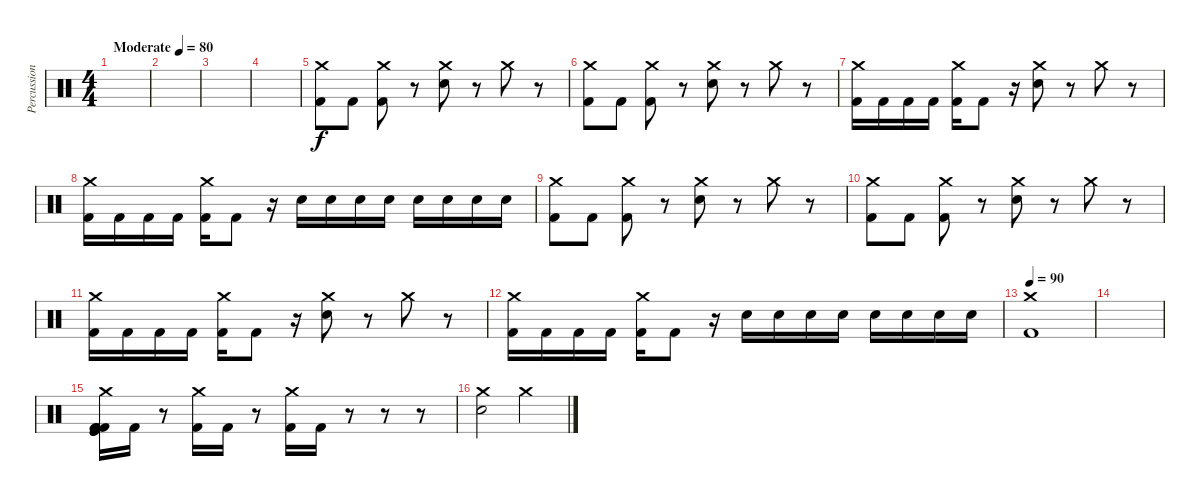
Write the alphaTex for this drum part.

\track ("Percussion" "Percussion") {instrument percussion}
\staff {score}
\articulation defaults
\ts (4 4)
\tempo (80 "Moderate")
\clef neutral
\ks c
|
|
|
|
("Crash medium (hit)" "Kick (hit) 2").8 "Kick (hit) 2".8 ("Crash medium (hit)" "Kick (hit) 2").8 r.8 ("Crash medium (hit)" "Electric Snare (hit)").8 r.8 "Crash medium (hit)".8 r.8 |
("Crash medium (hit)" "Kick (hit) 2").8 "Kick (hit) 2".8 ("Crash medium (hit)" "Kick (hit) 2").8 r.8 ("Crash medium (hit)" "Electric Snare (hit)").8 r.8 "Crash medium (hit)".8 r.8 |
("Crash medium (hit)" "Kick (hit) 2").16 "Kick (hit) 2".16 "Kick (hit) 2".16 "Kick (hit) 2".16 ("Crash medium (hit)" "Kick (hit) 2").16 "Kick (hit) 2".8 r.16 ("Crash medium (hit)" "Electric Snare (hit)").8 r.8 "Crash medium (hit)".8 r.8 |
("Crash medium (hit)" "Kick (hit) 2").16 "Kick (hit) 2".16 "Kick (hit) 2".16 "Kick (hit) 2".16 ("Crash medium (hit)" "Kick (hit) 2").16 "Kick (hit) 2".8 r.16 "Electric Snare (hit)".16 "Electric Snare (hit)".16 "Electric Snare (hit)".16 "Electric Snare (hit)".16 "Electric Snare (hit)".16 "Electric Snare (hit)".16 "Electric Snare (hit)".16 "Electric Snare (hit)".16 |
("Crash medium (hit)" "Kick (hit) 2").8 "Kick (hit) 2".8 ("Crash medium (hit)" "Kick (hit) 2").8 r.8 ("Crash medium (hit)" "Electric Snare (hit)").8 r.8 "Crash medium (hit)".8 r.8 |
("Crash medium (hit)" "Kick (hit) 2").8 "Kick (hit) 2".8 ("Crash medium (hit)" "Kick (hit) 2").8 r.8 ("Crash medium (hit)" "Electric Snare (hit)").8 r.8 "Crash medium (hit)".8 r.8 |
("Crash medium (hit)" "Kick (hit) 2").16 "Kick (hit) 2".16 "Kick (hit) 2".16 "Kick (hit) 2".16 ("Crash medium (hit)" "Kick (hit) 2").16 "Kick (hit) 2".8 r.16 ("Crash medium (hit)" "Electric Snare (hit)").8 r.8 "Crash medium (hit)".8 r.8 |
("Crash medium (hit)" "Kick (hit) 2").16 "Kick (hit) 2".16 "Kick (hit) 2".16 "Kick (hit) 2".16 ("Crash medium (hit)" "Kick (hit) 2").16 "Kick (hit) 2".8 r.16 "Electric Snare (hit)".16 "Electric Snare (hit)".16 "Electric Snare (hit)".16 "Electric Snare (hit)".16 "Electric Snare (hit)".16 "Electric Snare (hit)".16 "Electric Snare (hit)".16 "Electric Snare (hit)".16 |
\tempo 90
("Crash medium (hit)" "Kick (hit) 2").1 |
|
("Kick (hit) 2" "Crash medium (hit)" "Kick (hit)" "Kick (hit) 2" "Kick (hit)" "Kick (hit) 2").16 "Kick (hit) 2".16 r.8 ("Crash medium (hit)" "Kick (hit) 2").16 "Kick (hit) 2".16 r.8 ("Crash medium (hit)" "Kick (hit) 2").16 "Kick (hit) 2".16 r.8 r.8 r.8 |
("Crash medium (hit)" "Electric Snare (hit)").2 "Crash medium (hit)".2
